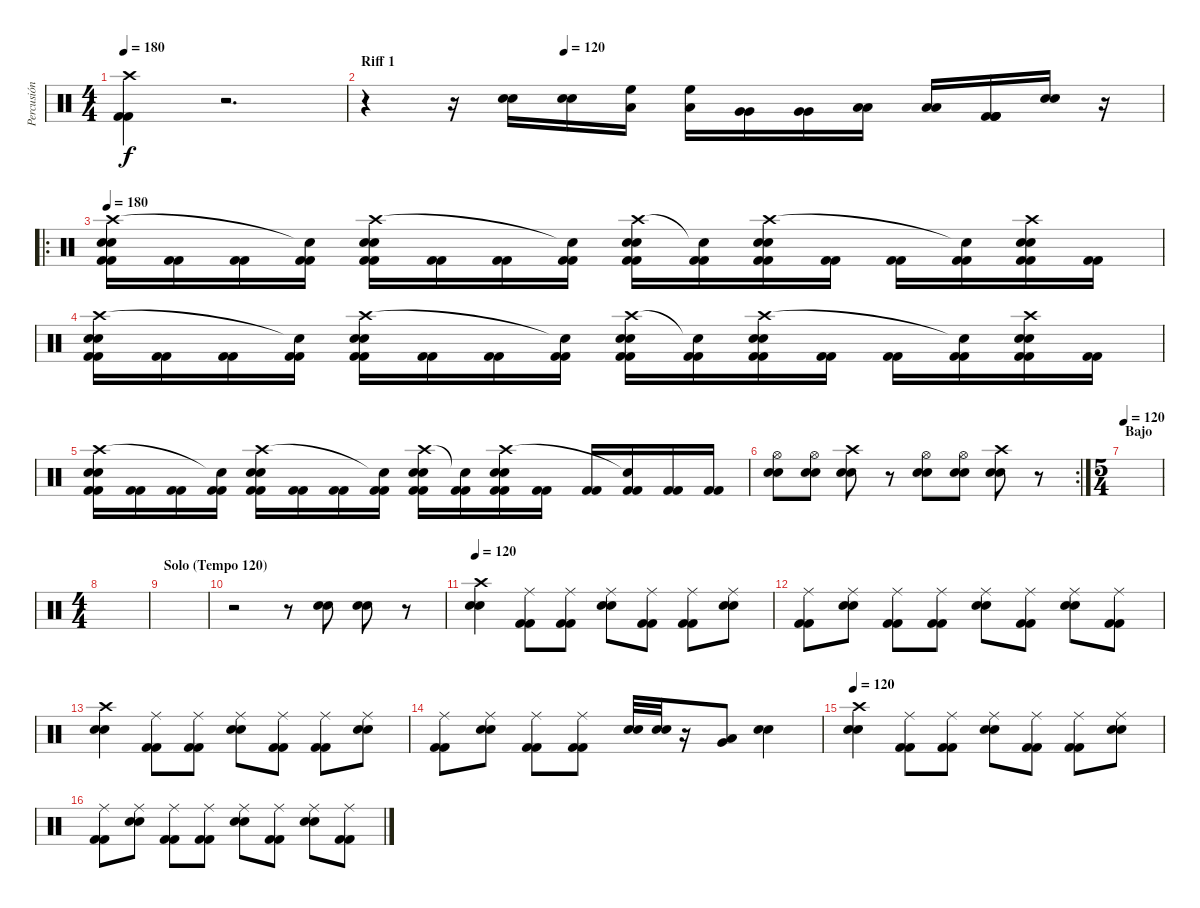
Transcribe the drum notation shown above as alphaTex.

\track ("Percusión" "Percusión") {instrument percussion}
\staff {score}
\articulation defaults
\ts (4 4)
\tempo 180
\clef neutral
\ks c
("Crash high (hit)" "Kick (hit) 2" "Kick (hit) 2").4{dy f} r.2{d} |
\section ("" "Riff 1")
\tempo (120 0.25)
r.4 r.16 ("Snare (hit) 2" "Snare (hit) 2").16 ("Snare (hit) 2" "Snare (hit) 2").16 ("High Floor Tom (hit)" "Low Tom (hit)").16 ("High Floor Tom (hit)" "Low Tom (hit)").16 ("Very Low Tom (hit)" "Very Low Tom (hit)").16 ("Very Low Tom (hit)" "Very Low Tom (hit)").16 ("Low Tom (hit)" "Low Tom (hit)").16 ("Low Tom (hit)" "Low Tom (hit)").16 ("Kick (hit) 2" "Kick (hit) 2" "Kick (hit) 2" "Kick (hit) 2").16 ("Snare (hit) 2" "Snare (hit) 2").16 r.16 |
\ro
\tempo 180
("Kick (hit) 2" "Kick (hit) 2" "Crash high (hit)" "Snare (hit) 2" "Snare (hit) 2").16 ("Kick (hit) 2" "Kick (hit) 2").16 ("Kick (hit) 2" "Kick (hit) 2").16 ("Kick (hit) 2" "Kick (hit) 2" "Snare (hit)"{t}).16 ("Kick (hit) 2" "Kick (hit) 2" "Crash high (hit)" "Snare (hit) 2" "Snare (hit) 2").16 ("Kick (hit) 2" "Kick (hit) 2").16 ("Kick (hit) 2" "Kick (hit) 2").16 ("Kick (hit) 2" "Kick (hit) 2" "Snare (hit)"{t}).16 ("Kick (hit) 2" "Kick (hit) 2" "Crash high (hit)" "Snare (hit) 2" "Snare (hit) 2").16 ("Kick (hit) 2" "Kick (hit) 2" "Snare (hit)"{t}).16 ("Kick (hit) 2" "Kick (hit) 2" "Crash high (hit)" "Snare (hit) 2" "Snare (hit) 2").16 ("Kick (hit) 2" "Kick (hit) 2").16 ("Kick (hit) 2" "Kick (hit) 2").16 ("Kick (hit) 2" "Kick (hit) 2" "Snare (hit)"{t}).16 ("Kick (hit) 2" "Kick (hit) 2" "Crash high (hit)" "Snare (hit) 2" "Snare (hit) 2").16 ("Kick (hit) 2" "Kick (hit) 2").16 |
("Kick (hit) 2" "Kick (hit) 2" "Crash high (hit)" "Snare (hit) 2" "Snare (hit) 2").16 ("Kick (hit) 2" "Kick (hit) 2").16 ("Kick (hit) 2" "Kick (hit) 2").16 ("Kick (hit) 2" "Kick (hit) 2" "Snare (hit)"{t}).16 ("Kick (hit) 2" "Kick (hit) 2" "Crash high (hit)" "Snare (hit) 2" "Snare (hit) 2").16 ("Kick (hit) 2" "Kick (hit) 2").16 ("Kick (hit) 2" "Kick (hit) 2").16 ("Kick (hit) 2" "Kick (hit) 2" "Snare (hit)"{t}).16 ("Kick (hit) 2" "Kick (hit) 2" "Crash high (hit)" "Snare (hit) 2" "Snare (hit) 2").16 ("Kick (hit) 2" "Kick (hit) 2" "Snare (hit)"{t}).16 ("Kick (hit) 2" "Kick (hit) 2" "Crash high (hit)" "Snare (hit) 2" "Snare (hit) 2").16 ("Kick (hit) 2" "Kick (hit) 2").16 ("Kick (hit) 2" "Kick (hit) 2").16 ("Kick (hit) 2" "Kick (hit) 2" "Snare (hit)"{t}).16 ("Kick (hit) 2" "Kick (hit) 2" "Crash high (hit)" "Snare (hit) 2" "Snare (hit) 2").16 ("Kick (hit) 2" "Kick (hit) 2").16 |
("Kick (hit) 2" "Kick (hit) 2" "Crash high (hit)" "Snare (hit) 2" "Snare (hit) 2").16 ("Kick (hit) 2" "Kick (hit) 2").16 ("Kick (hit) 2" "Kick (hit) 2").16 ("Kick (hit) 2" "Kick (hit) 2" "Snare (hit)"{t}).16 ("Kick (hit) 2" "Kick (hit) 2" "Crash high (hit)" "Snare (hit) 2" "Snare (hit) 2").16 ("Kick (hit) 2" "Kick (hit) 2").16 ("Kick (hit) 2" "Kick (hit) 2").16 ("Kick (hit) 2" "Kick (hit) 2" "Snare (hit)"{t}).16 ("Kick (hit) 2" "Kick (hit) 2" "Crash high (hit)" "Snare (hit) 2" "Snare (hit) 2").16 ("Kick (hit) 2" "Kick (hit) 2" "Snare (hit)"{t}).16 ("Kick (hit) 2" "Kick (hit) 2" "Crash high (hit)" "Snare (hit) 2" "Snare (hit) 2").16 ("Kick (hit) 2" "Kick (hit) 2").16 ("Kick (hit) 2" "Kick (hit) 2").16 ("Kick (hit) 2" "Kick (hit) 2" "Snare (hit)"{t}).16 ("Kick (hit) 2" "Kick (hit) 2").16 ("Kick (hit) 2" "Kick (hit) 2").16 |
\rc 2
("Hi-Hat (open)" "Snare (hit) 2" "Snare (hit) 2").8 ("Hi-Hat (open)" "Snare (hit) 2" "Snare (hit) 2").8 ("Crash high (hit)" "Snare (hit) 2" "Snare (hit) 2").8 r.8 ("Hi-Hat (open)" "Snare (hit) 2" "Snare (hit) 2").8 ("Hi-Hat (open)" "Snare (hit) 2" "Snare (hit) 2").8 ("Crash high (hit)" "Snare (hit) 2" "Snare (hit) 2").8 r.8 |
\ts (5 4)
\section ("" "Bajo")
\tempo 120
|
\ts (4 4)
|
\section ("" "Solo (Tempo 120)")
|
r.2 r.8 ("Electric Snare (hit)" "Snare (hit) 2").8 ("Electric Snare (hit)" "Snare (hit) 2").8 r.8 |
\tempo 120
("Crash high (hit)" "Snare (hit) 2" "Snare (hit) 2").4 ("Ride (middle)" "Kick (hit) 2" "Kick (hit) 2").8 ("Ride (middle)" "Kick (hit) 2" "Kick (hit) 2").8 ("Ride (middle)" "Snare (hit) 2" "Snare (hit) 2").8 ("Ride (middle)" "Kick (hit) 2" "Kick (hit) 2").8 ("Ride (middle)" "Kick (hit) 2" "Kick (hit) 2").8 ("Ride (middle)" "Snare (hit) 2" "Snare (hit) 2").8 |
("Ride (middle)" "Kick (hit) 2" "Kick (hit) 2").8 ("Ride (middle)" "Snare (hit) 2" "Snare (hit) 2").8 ("Ride (middle)" "Kick (hit) 2" "Kick (hit) 2").8 ("Ride (middle)" "Kick (hit) 2" "Kick (hit) 2").8 ("Ride (middle)" "Snare (hit) 2" "Snare (hit) 2").8 ("Ride (middle)" "Kick (hit) 2" "Kick (hit) 2").8 ("Ride (middle)" "Snare (hit) 2" "Snare (hit) 2").8 ("Ride (middle)" "Kick (hit) 2" "Kick (hit) 2").8 |
("Crash high (hit)" "Snare (hit) 2" "Snare (hit) 2").4 ("Ride (middle)" "Kick (hit) 2" "Kick (hit) 2").8 ("Ride (middle)" "Kick (hit) 2" "Kick (hit) 2").8 ("Ride (middle)" "Snare (hit) 2" "Snare (hit) 2").8 ("Ride (middle)" "Kick (hit) 2" "Kick (hit) 2").8 ("Ride (middle)" "Kick (hit) 2" "Kick (hit) 2").8 ("Ride (middle)" "Snare (hit) 2" "Snare (hit) 2").8 |
("Ride (middle)" "Kick (hit) 2" "Kick (hit) 2").8 ("Ride (middle)" "Snare (hit) 2" "Snare (hit) 2").8 ("Ride (middle)" "Kick (hit) 2" "Kick (hit) 2").8 ("Ride (middle)" "Kick (hit) 2" "Kick (hit) 2").8 ("Electric Snare (hit)" "Electric Snare (hit)").32 ("Electric Snare (hit)" "Electric Snare (hit)").32 r.16 ("Very Low Tom (hit)" "Low Floor Tom (hit)").8 ("Snare (hit) 2" "Snare (hit) 2").4 |
\tempo 120
("Crash high (hit)" "Snare (hit) 2" "Snare (hit) 2").4 ("Ride (middle)" "Kick (hit) 2" "Kick (hit) 2").8 ("Ride (middle)" "Kick (hit) 2" "Kick (hit) 2").8 ("Ride (middle)" "Snare (hit) 2" "Snare (hit) 2").8 ("Ride (middle)" "Kick (hit) 2" "Kick (hit) 2").8 ("Ride (middle)" "Kick (hit) 2" "Kick (hit) 2").8 ("Ride (middle)" "Snare (hit) 2" "Snare (hit) 2").8 |
("Ride (middle)" "Kick (hit) 2" "Kick (hit) 2").8 ("Ride (middle)" "Snare (hit) 2" "Snare (hit) 2").8 ("Ride (middle)" "Kick (hit) 2" "Kick (hit) 2").8 ("Ride (middle)" "Kick (hit) 2" "Kick (hit) 2").8 ("Ride (middle)" "Snare (hit) 2" "Snare (hit) 2").8 ("Ride (middle)" "Kick (hit) 2" "Kick (hit) 2").8 ("Ride (middle)" "Snare (hit) 2" "Snare (hit) 2").8 ("Ride (middle)" "Kick (hit) 2" "Kick (hit) 2").8
